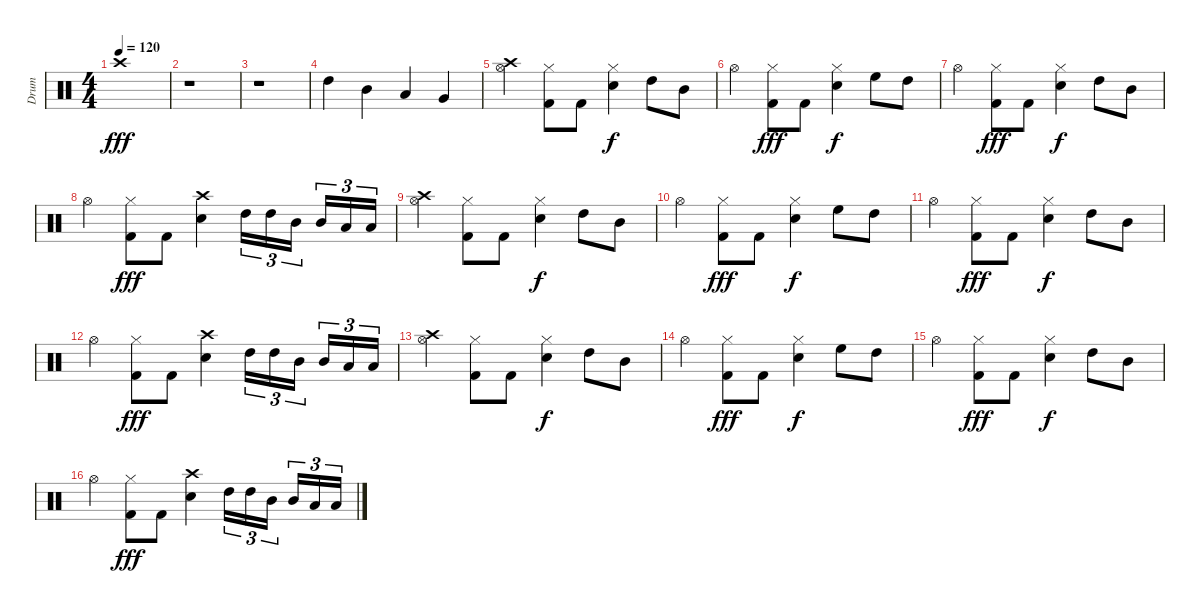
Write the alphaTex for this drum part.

\track ("Drum" "Drum") {instrument percussion}
\staff {score}
\articulation defaults
\ts (4 4)
\tempo 120
\clef neutral
\ks c "Crash high (hit)".1{dy fff}
|
r.1 |
r.1 |
"High Tom (hit)".4 "Mid Tom (hit)".4 "Low Tom (hit)".4 "Very Low Tom (hit)".4 |
("Crash high (hit)" "Hi-Hat (open)").4 ("Hi-Hat (closed)" "Kick (hit) 2").8 "Kick (hit) 2".8 ("Hi-Hat (closed)" "Electric Snare (hit)").4{dy f} "High Tom (hit)".8 "Mid Tom (hit)".8 |
"Hi-Hat (open)".4 ("Hi-Hat (closed)" "Kick (hit) 2").8{dy fff} "Kick (hit) 2".8 ("Hi-Hat (closed)" "Electric Snare (hit)").4{dy f} "High Floor Tom (hit)".8 "High Tom (hit)".8 |
"Hi-Hat (open)".4 ("Hi-Hat (closed)" "Kick (hit) 2").8{dy fff} "Kick (hit) 2".8 ("Hi-Hat (closed)" "Electric Snare (hit)").4{dy f} "High Tom (hit)".8 "Mid Tom (hit)".8 |
"Hi-Hat (open)".4 ("Hi-Hat (closed)" "Kick (hit) 2").8{dy fff} "Kick (hit) 2".8 ("Crash high (hit)" "Electric Snare (hit)").4 "High Tom (hit)".16{tu (3 2)} "High Tom (hit)".16{tu (3 2)} "Mid Tom (hit)".16{tu (3 2)} "Mid Tom (hit)".16{tu (3 2)} "Low Tom (hit)".16{tu (3 2)} "Low Tom (hit)".16{tu (3 2)} |
("Crash high (hit)" "Hi-Hat (open)").4 ("Hi-Hat (closed)" "Kick (hit) 2").8 "Kick (hit) 2".8 ("Hi-Hat (closed)" "Electric Snare (hit)").4{dy f} "High Tom (hit)".8 "Mid Tom (hit)".8 |
"Hi-Hat (open)".4 ("Hi-Hat (closed)" "Kick (hit) 2").8{dy fff} "Kick (hit) 2".8 ("Hi-Hat (closed)" "Electric Snare (hit)").4{dy f} "High Floor Tom (hit)".8 "High Tom (hit)".8 |
"Hi-Hat (open)".4 ("Hi-Hat (closed)" "Kick (hit) 2").8{dy fff} "Kick (hit) 2".8 ("Hi-Hat (closed)" "Electric Snare (hit)").4{dy f} "High Tom (hit)".8 "Mid Tom (hit)".8 |
"Hi-Hat (open)".4 ("Hi-Hat (closed)" "Kick (hit) 2").8{dy fff} "Kick (hit) 2".8 ("Crash high (hit)" "Electric Snare (hit)").4 "High Tom (hit)".16{tu (3 2)} "High Tom (hit)".16{tu (3 2)} "Mid Tom (hit)".16{tu (3 2)} "Mid Tom (hit)".16{tu (3 2)} "Low Tom (hit)".16{tu (3 2)} "Low Tom (hit)".16{tu (3 2)} |
("Crash high (hit)" "Hi-Hat (open)").4 ("Hi-Hat (closed)" "Kick (hit) 2").8 "Kick (hit) 2".8 ("Hi-Hat (closed)" "Electric Snare (hit)").4{dy f} "High Tom (hit)".8 "Mid Tom (hit)".8 |
"Hi-Hat (open)".4 ("Hi-Hat (closed)" "Kick (hit) 2").8{dy fff} "Kick (hit) 2".8 ("Hi-Hat (closed)" "Electric Snare (hit)").4{dy f} "High Floor Tom (hit)".8 "High Tom (hit)".8 |
"Hi-Hat (open)".4 ("Hi-Hat (closed)" "Kick (hit) 2").8{dy fff} "Kick (hit) 2".8 ("Hi-Hat (closed)" "Electric Snare (hit)").4{dy f} "High Tom (hit)".8 "Mid Tom (hit)".8 |
"Hi-Hat (open)".4 ("Hi-Hat (closed)" "Kick (hit) 2").8{dy fff} "Kick (hit) 2".8 ("Crash high (hit)" "Electric Snare (hit)").4 "High Tom (hit)".16{tu (3 2)} "High Tom (hit)".16{tu (3 2)} "Mid Tom (hit)".16{tu (3 2)} "Mid Tom (hit)".16{tu (3 2)} "Low Tom (hit)".16{tu (3 2)} "Low Tom (hit)".16{tu (3 2)}
